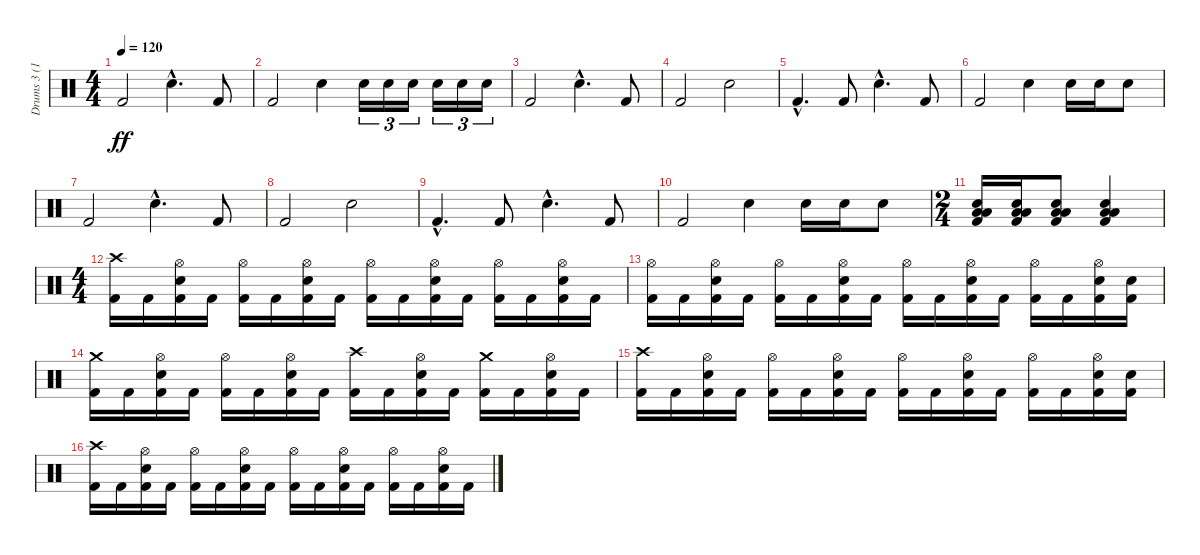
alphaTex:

\track ("Drums 3 (16)" "Drums 3 (1") {instrument percussion}
\staff {score}
\articulation defaults
\ts (4 4)
\tempo 120
\clef neutral
\ks c "Kick (hit) 2".2{dy ff} "Snare (hit) 2"{hac}.4{d} "Kick (hit) 2".8
|
"Kick (hit) 2".2 "Snare (hit) 2".4 "Snare (hit) 2".16{tu (3 2)} "Snare (hit) 2".16{tu (3 2)} "Snare (hit) 2".16{tu (3 2)} "Snare (hit) 2".16{tu (3 2)} "Snare (hit) 2".16{tu (3 2)} "Snare (hit) 2".16{tu (3 2)} |
"Kick (hit) 2".2 "Snare (hit) 2"{hac}.4{d} "Kick (hit) 2".8 |
"Kick (hit) 2".2 "Snare (hit) 2".2 |
"Kick (hit) 2"{hac}.4{d} "Kick (hit) 2".8 "Snare (hit) 2"{hac}.4{d} "Kick (hit) 2".8 |
"Kick (hit) 2".2 "Snare (hit) 2".4 "Snare (hit) 2".16 "Snare (hit) 2".16 "Snare (hit) 2".8 |
"Kick (hit) 2".2 "Snare (hit) 2"{hac}.4{d} "Kick (hit) 2".8 |
"Kick (hit) 2".2 "Snare (hit) 2".2 |
"Kick (hit) 2"{hac}.4{d} "Kick (hit) 2".8 "Snare (hit) 2"{hac}.4{d} "Kick (hit) 2".8 |
"Kick (hit) 2".2 "Snare (hit) 2".4 "Snare (hit) 2".16 "Snare (hit) 2".16 "Snare (hit) 2".8 |
\ts (2 4)
("Kick (hit) 2" "Snare (hit) 2" "Low Floor Tom (hit)" "Low Tom (hit)").16 ("Kick (hit) 2" "Snare (hit) 2" "Low Floor Tom (hit)" "Low Tom (hit)").16 ("Kick (hit) 2" "Snare (hit) 2" "Low Floor Tom (hit)" "Low Tom (hit)").8 ("Kick (hit) 2" "Snare (hit) 2" "Low Floor Tom (hit)" "Low Tom (hit)").4 |
\ts (4 4)
("Kick (hit) 2" "Crash high (hit)").16 "Kick (hit) 2".16 ("Kick (hit) 2" "Snare (hit) 2" "Hi-Hat (open)").16 "Kick (hit) 2".16 ("Kick (hit) 2" "Hi-Hat (open)").16 "Kick (hit) 2".16 ("Kick (hit) 2" "Snare (hit) 2" "Hi-Hat (open)").16 "Kick (hit) 2".16 ("Kick (hit) 2" "Hi-Hat (open)").16 "Kick (hit) 2".16 ("Kick (hit) 2" "Snare (hit) 2" "Hi-Hat (open)").16 "Kick (hit) 2".16 ("Kick (hit) 2" "Hi-Hat (open)").16 "Kick (hit) 2".16 ("Kick (hit) 2" "Snare (hit) 2" "Hi-Hat (open)").16 "Kick (hit) 2".16 |
("Kick (hit) 2" "Hi-Hat (open)").16 "Kick (hit) 2".16 ("Kick (hit) 2" "Snare (hit) 2" "Hi-Hat (open)").16 "Kick (hit) 2".16 ("Kick (hit) 2" "Hi-Hat (open)").16 "Kick (hit) 2".16 ("Kick (hit) 2" "Snare (hit) 2" "Hi-Hat (open)").16 "Kick (hit) 2".16 ("Kick (hit) 2" "Hi-Hat (open)").16 "Kick (hit) 2".16 ("Kick (hit) 2" "Snare (hit) 2" "Hi-Hat (open)").16 "Kick (hit) 2".16 ("Kick (hit) 2" "Hi-Hat (open)").16 "Kick (hit) 2".16 ("Kick (hit) 2" "Snare (hit) 2" "Hi-Hat (open)").16 ("Kick (hit) 2" "Snare (hit) 2").16 |
("Kick (hit) 2" "Crash medium (hit)").16 "Kick (hit) 2".16 ("Kick (hit) 2" "Snare (hit) 2" "Hi-Hat (open)").16 "Kick (hit) 2".16 ("Kick (hit) 2" "Hi-Hat (open)").16 "Kick (hit) 2".16 ("Kick (hit) 2" "Snare (hit) 2" "Hi-Hat (open)").16 "Kick (hit) 2".16 ("Kick (hit) 2" "Crash high (hit)").16 "Kick (hit) 2".16 ("Kick (hit) 2" "Snare (hit) 2" "Hi-Hat (open)").16 "Kick (hit) 2".16 ("Kick (hit) 2" "Crash medium (hit)").16 "Kick (hit) 2".16 ("Kick (hit) 2" "Snare (hit) 2" "Hi-Hat (open)").16 "Kick (hit) 2".16 |
("Kick (hit) 2" "Crash high (hit)").16 "Kick (hit) 2".16 ("Kick (hit) 2" "Snare (hit) 2" "Hi-Hat (open)").16 "Kick (hit) 2".16 ("Kick (hit) 2" "Hi-Hat (open)").16 "Kick (hit) 2".16 ("Kick (hit) 2" "Snare (hit) 2" "Hi-Hat (open)").16 "Kick (hit) 2".16 ("Kick (hit) 2" "Hi-Hat (open)").16 "Kick (hit) 2".16 ("Kick (hit) 2" "Snare (hit) 2" "Hi-Hat (open)").16 "Kick (hit) 2".16 ("Kick (hit) 2" "Hi-Hat (open)").16 "Kick (hit) 2".16 ("Kick (hit) 2" "Snare (hit) 2" "Hi-Hat (open)").16 ("Kick (hit) 2" "Snare (hit) 2").16 |
("Kick (hit) 2" "Crash high (hit)").16 "Kick (hit) 2".16 ("Kick (hit) 2" "Snare (hit) 2" "Hi-Hat (open)").16 "Kick (hit) 2".16 ("Kick (hit) 2" "Hi-Hat (open)").16 "Kick (hit) 2".16 ("Kick (hit) 2" "Snare (hit) 2" "Hi-Hat (open)").16 "Kick (hit) 2".16 ("Kick (hit) 2" "Hi-Hat (open)").16 "Kick (hit) 2".16 ("Kick (hit) 2" "Snare (hit) 2" "Hi-Hat (open)").16 "Kick (hit) 2".16 ("Kick (hit) 2" "Hi-Hat (open)").16 "Kick (hit) 2".16 ("Kick (hit) 2" "Snare (hit) 2" "Hi-Hat (open)").16 "Kick (hit) 2".16
